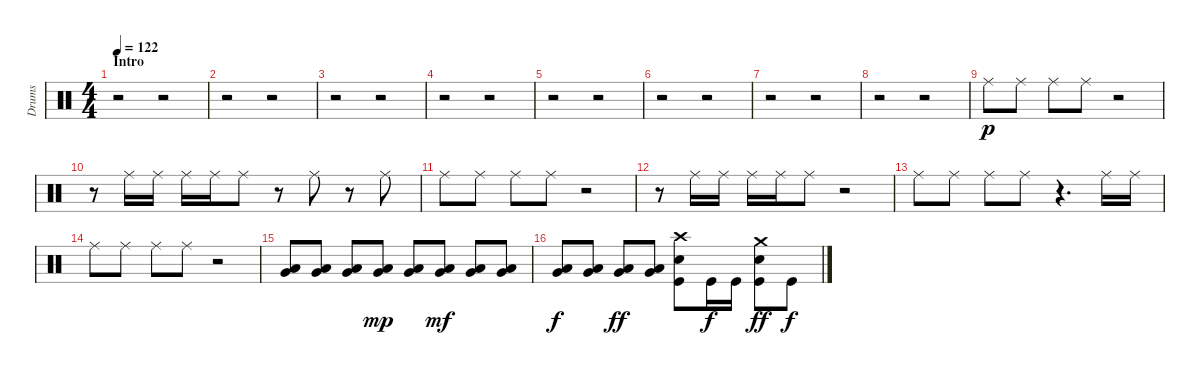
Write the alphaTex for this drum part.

\track ("Drums" "Drums") {instrument percussion}
\staff {score}
\articulation defaults
\ts (4 4)
\section ("" "Intro")
\tempo 122
\clef neutral
\ks c
r.2{dy p} r.2 |
r.2 r.2 |
r.2 r.2 |
r.2 r.2 |
r.2 r.2 |
r.2 r.2 |
r.2 r.2 |
r.2 r.2 |
"Ride (middle)".8 "Ride (middle)".8 "Ride (middle)".8 "Ride (middle)".8 r.2 |
r.8 "Ride (middle)".16 "Ride (middle)".16 "Ride (middle)".16 "Ride (middle)".16 "Ride (middle)".8 r.8 "Ride (middle)".8 r.8 "Ride (middle)".8 |
"Ride (middle)".8 "Ride (middle)".8 "Ride (middle)".8 "Ride (middle)".8 r.2 |
r.8 "Ride (middle)".16 "Ride (middle)".16 "Ride (middle)".16 "Ride (middle)".16 "Ride (middle)".8 r.2 |
"Ride (middle)".8 "Ride (middle)".8 "Ride (middle)".8 "Ride (middle)".8 r.4{d} "Ride (middle)".16 "Ride (middle)".16 |
"Ride (middle)".8 "Ride (middle)".8 "Ride (middle)".8 "Ride (middle)".8 r.2 |
("Low Floor Tom (hit)" "Very Low Tom (hit)").8 ("Low Floor Tom (hit)" "Very Low Tom (hit)").8 ("Low Floor Tom (hit)" "Very Low Tom (hit)").8 ("Low Floor Tom (hit)" "Very Low Tom (hit)").8{dy mp} ("Low Floor Tom (hit)" "Very Low Tom (hit)").8 ("Low Floor Tom (hit)" "Very Low Tom (hit)").8{dy mf} ("Low Floor Tom (hit)" "Very Low Tom (hit)").8 ("Low Floor Tom (hit)" "Very Low Tom (hit)").8 |
("Low Floor Tom (hit)" "Very Low Tom (hit)").8{dy f} ("Low Floor Tom (hit)" "Very Low Tom (hit)").8 ("Low Floor Tom (hit)" "Very Low Tom (hit)").8{dy ff} ("Low Floor Tom (hit)" "Very Low Tom (hit)").8 ("Crash high (hit)" "Electric Snare (hit)" "Kick (hit)").8 "Kick (hit)".16{dy f} "Kick (hit)".16 ("Crash medium (hit)" "Electric Snare (hit)" "Kick (hit)").8{dy ff} "Kick (hit)".8{dy f}
